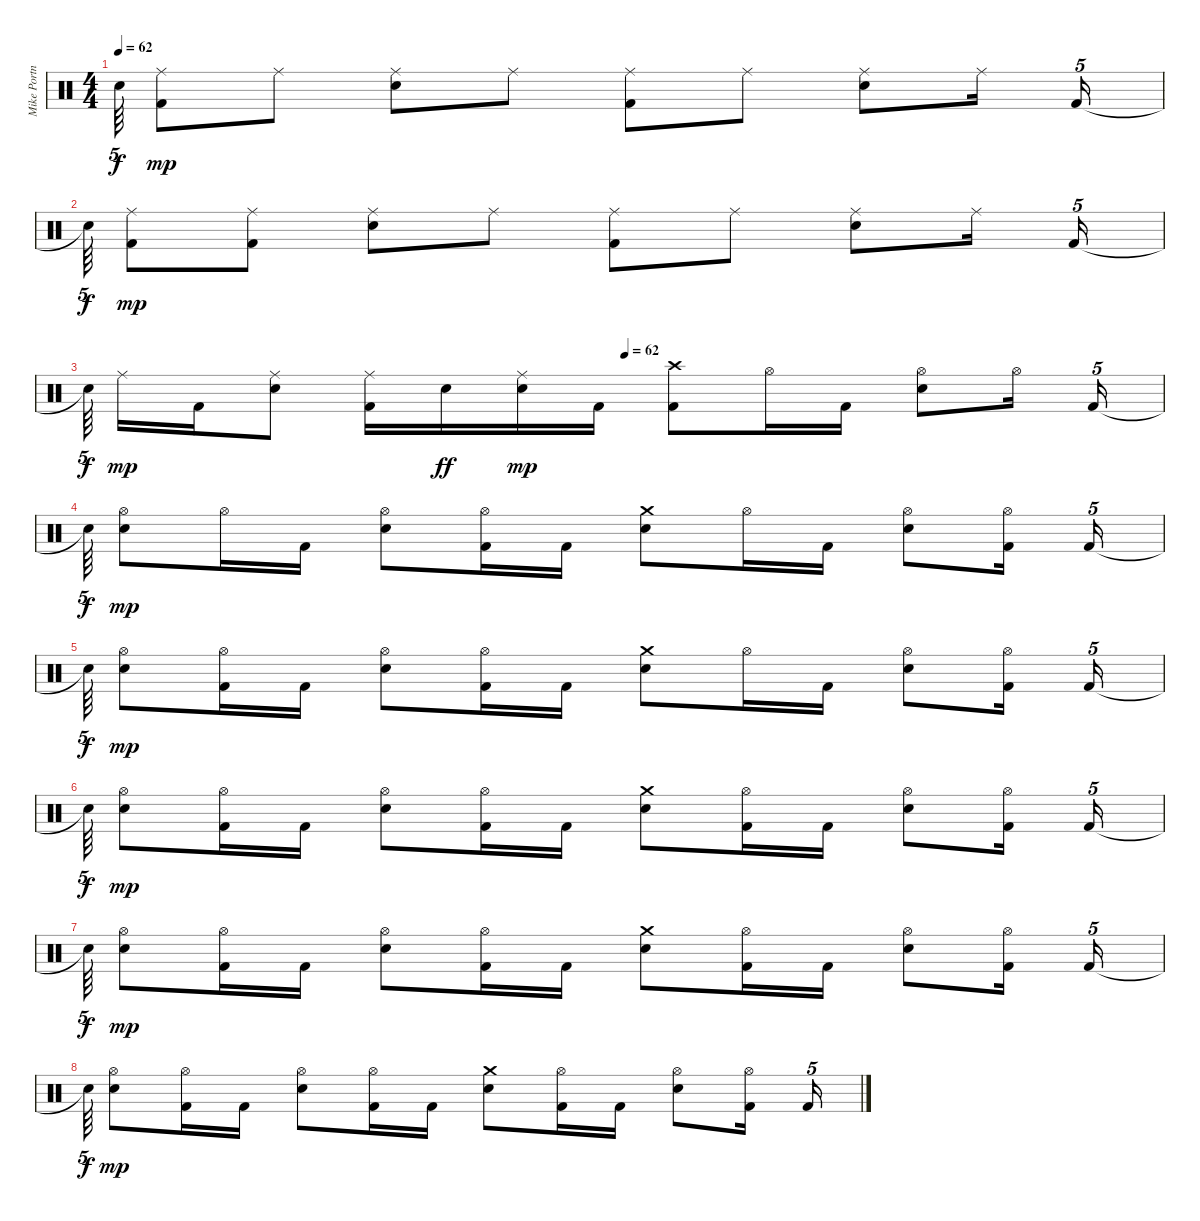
\track ("Mike Portnoy" "Mike Portn") {instrument percussion}
\staff {score}
\articulation defaults
\ts (4 4)
\tempo 62
\clef neutral
\ks c "Snare (hit)"{t}.64{tu (5 4) dy f}
("Kick (hit) 2" "Ride (middle)").8{dy mp} "Ride (middle)".8 ("Electric Snare (hit)" "Ride (middle)").8 "Ride (middle)".8 ("Kick (hit) 2" "Ride (middle)").8 "Ride (middle)".8 ("Electric Snare (hit)" "Ride (middle)").8 "Ride (middle)".16 "Kick (hit) 2".16{tu (5 4)} |
"Snare (hit)"{t}.64{tu (5 4) dy f} ("Kick (hit) 2" "Ride (middle)").8{dy mp} ("Kick (hit) 2" "Ride (middle)").8 ("Electric Snare (hit)" "Ride (middle)").8 "Ride (middle)".8 ("Kick (hit) 2" "Ride (middle)").8 "Ride (middle)".8 ("Electric Snare (hit)" "Ride (middle)").8 "Ride (middle)".16 "Kick (hit) 2".16{tu (5 4)} |
\tempo (62 0.5)
"Snare (hit)"{t}.64{tu (5 4) dy f} "Ride (middle)".16{dy mp} "Kick (hit) 2".16 ("Electric Snare (hit)" "Ride (middle)").8 ("Kick (hit) 2" "Ride (middle)").16 "Electric Snare (hit)".16{dy ff} ("Electric Snare (hit)" "Ride (middle)").16{dy mp} "Kick (hit) 2".16 ("Kick (hit) 2" "Crash high (hit)").8 "Hi-Hat (open)".16 "Kick (hit) 2".16 ("Electric Snare (hit)" "Hi-Hat (open)").8 "Hi-Hat (open)".16 "Kick (hit) 2".16{tu (5 4)} |
"Snare (hit)"{t}.64{tu (5 4) dy f} ("Electric Snare (hit)" "Hi-Hat (open)").8{dy mp} "Hi-Hat (open)".16 "Kick (hit) 2".16 ("Electric Snare (hit)" "Hi-Hat (open)").8 ("Kick (hit) 2" "Hi-Hat (open)").16 "Kick (hit) 2".16 ("Electric Snare (hit)" "Crash medium (hit)").8 "Hi-Hat (open)".16 "Kick (hit) 2".16 ("Electric Snare (hit)" "Hi-Hat (open)").8 ("Kick (hit) 2" "Hi-Hat (open)").16 "Kick (hit) 2".16{tu (5 4)} |
"Snare (hit)"{t}.64{tu (5 4) dy f} ("Electric Snare (hit)" "Hi-Hat (open)").8{dy mp} ("Kick (hit) 2" "Hi-Hat (open)").16 "Kick (hit) 2".16 ("Electric Snare (hit)" "Hi-Hat (open)").8 ("Kick (hit) 2" "Hi-Hat (open)").16 "Kick (hit) 2".16 ("Electric Snare (hit)" "Crash medium (hit)").8 "Hi-Hat (open)".16 "Kick (hit) 2".16 ("Electric Snare (hit)" "Hi-Hat (open)").8 ("Kick (hit) 2" "Hi-Hat (open)").16 "Kick (hit) 2".16{tu (5 4)} |
"Snare (hit)"{t}.64{tu (5 4) dy f} ("Electric Snare (hit)" "Hi-Hat (open)").8{dy mp} ("Kick (hit) 2" "Hi-Hat (open)").16 "Kick (hit) 2".16 ("Electric Snare (hit)" "Hi-Hat (open)").8 ("Kick (hit) 2" "Hi-Hat (open)").16 "Kick (hit) 2".16 ("Electric Snare (hit)" "Crash medium (hit)").8 ("Kick (hit) 2" "Hi-Hat (open)").16 "Kick (hit) 2".16 ("Electric Snare (hit)" "Hi-Hat (open)").8 ("Kick (hit) 2" "Hi-Hat (open)").16 "Kick (hit) 2".16{tu (5 4)} |
"Snare (hit)"{t}.64{tu (5 4) dy f} ("Electric Snare (hit)" "Hi-Hat (open)").8{dy mp} ("Kick (hit) 2" "Hi-Hat (open)").16 "Kick (hit) 2".16 ("Electric Snare (hit)" "Hi-Hat (open)").8 ("Kick (hit) 2" "Hi-Hat (open)").16 "Kick (hit) 2".16 ("Electric Snare (hit)" "Crash medium (hit)").8 ("Kick (hit) 2" "Hi-Hat (open)").16 "Kick (hit) 2".16 ("Electric Snare (hit)" "Hi-Hat (open)").8 ("Kick (hit) 2" "Hi-Hat (open)").16 "Kick (hit) 2".16{tu (5 4)} |
"Snare (hit)"{t}.64{tu (5 4) dy f} ("Electric Snare (hit)" "Hi-Hat (open)").8{dy mp} ("Kick (hit) 2" "Hi-Hat (open)").16 "Kick (hit) 2".16 ("Electric Snare (hit)" "Hi-Hat (open)").8 ("Kick (hit) 2" "Hi-Hat (open)").16 "Kick (hit) 2".16 ("Electric Snare (hit)" "Crash medium (hit)").8 ("Kick (hit) 2" "Hi-Hat (open)").16 "Kick (hit) 2".16 ("Electric Snare (hit)" "Hi-Hat (open)").8 ("Kick (hit) 2" "Hi-Hat (open)").16 "Kick (hit) 2".16{tu (5 4)}
